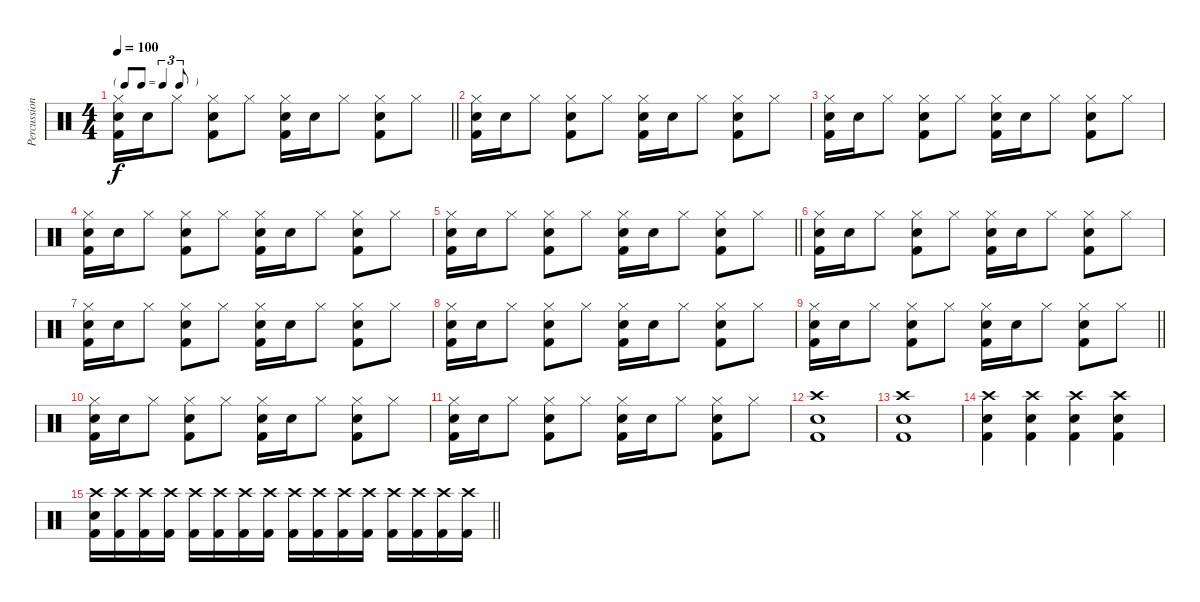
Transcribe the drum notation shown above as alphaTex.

\track ("Percussion" "Percussion") {instrument percussion}
\staff {score}
\articulation defaults
\ts (4 4)
\tf triplet8th
\tempo 100
\clef neutral
\barLineRight lightlight
\ks c
("Snare (hit) 2" "Hi-Hat (closed)" "Kick (hit) 2").16{dy f} "Snare (hit) 2".16 "Hi-Hat (closed)".8 ("Snare (hit) 2" "Hi-Hat (closed)" "Kick (hit) 2").8 "Hi-Hat (closed)".8 ("Snare (hit) 2" "Hi-Hat (closed)" "Kick (hit) 2").16 "Snare (hit) 2".16 "Hi-Hat (closed)".8 ("Snare (hit) 2" "Hi-Hat (closed)" "Kick (hit) 2").8 "Hi-Hat (closed)".8 |
("Snare (hit) 2" "Hi-Hat (closed)" "Kick (hit) 2").16 "Snare (hit) 2".16 "Hi-Hat (closed)".8 ("Snare (hit) 2" "Hi-Hat (closed)" "Kick (hit) 2").8 "Hi-Hat (closed)".8 ("Snare (hit) 2" "Hi-Hat (closed)" "Kick (hit) 2").16 "Snare (hit) 2".16 "Hi-Hat (closed)".8 ("Snare (hit) 2" "Hi-Hat (closed)" "Kick (hit) 2").8 "Hi-Hat (closed)".8 |
("Snare (hit) 2" "Hi-Hat (closed)" "Kick (hit) 2").16 "Snare (hit) 2".16 "Hi-Hat (closed)".8 ("Snare (hit) 2" "Hi-Hat (closed)" "Kick (hit) 2").8 "Hi-Hat (closed)".8 ("Snare (hit) 2" "Hi-Hat (closed)" "Kick (hit) 2").16 "Snare (hit) 2".16 "Hi-Hat (closed)".8 ("Snare (hit) 2" "Hi-Hat (closed)" "Kick (hit) 2").8 "Hi-Hat (closed)".8 |
("Snare (hit) 2" "Hi-Hat (closed)" "Kick (hit) 2").16 "Snare (hit) 2".16 "Hi-Hat (closed)".8 ("Snare (hit) 2" "Hi-Hat (closed)" "Kick (hit) 2").8 "Hi-Hat (closed)".8 ("Snare (hit) 2" "Hi-Hat (closed)" "Kick (hit) 2").16 "Snare (hit) 2".16 "Hi-Hat (closed)".8 ("Snare (hit) 2" "Hi-Hat (closed)" "Kick (hit) 2").8 "Hi-Hat (closed)".8 |
\barLineRight lightlight
("Snare (hit) 2" "Hi-Hat (closed)" "Kick (hit) 2").16 "Snare (hit) 2".16 "Hi-Hat (closed)".8 ("Snare (hit) 2" "Hi-Hat (closed)" "Kick (hit) 2").8 "Hi-Hat (closed)".8 ("Snare (hit) 2" "Hi-Hat (closed)" "Kick (hit) 2").16 "Snare (hit) 2".16 "Hi-Hat (closed)".8 ("Snare (hit) 2" "Hi-Hat (closed)" "Kick (hit) 2").8 "Hi-Hat (closed)".8 |
("Snare (hit) 2" "Hi-Hat (closed)" "Kick (hit) 2").16 "Snare (hit) 2".16 "Hi-Hat (closed)".8 ("Snare (hit) 2" "Hi-Hat (closed)" "Kick (hit) 2").8 "Hi-Hat (closed)".8 ("Snare (hit) 2" "Hi-Hat (closed)" "Kick (hit) 2").16 "Snare (hit) 2".16 "Hi-Hat (closed)".8 ("Snare (hit) 2" "Hi-Hat (closed)" "Kick (hit) 2").8 "Hi-Hat (closed)".8 |
("Snare (hit) 2" "Hi-Hat (closed)" "Kick (hit) 2").16 "Snare (hit) 2".16 "Hi-Hat (closed)".8 ("Snare (hit) 2" "Hi-Hat (closed)" "Kick (hit) 2").8 "Hi-Hat (closed)".8 ("Snare (hit) 2" "Hi-Hat (closed)" "Kick (hit) 2").16 "Snare (hit) 2".16 "Hi-Hat (closed)".8 ("Snare (hit) 2" "Hi-Hat (closed)" "Kick (hit) 2").8 "Hi-Hat (closed)".8 |
("Snare (hit) 2" "Hi-Hat (closed)" "Kick (hit) 2").16 "Snare (hit) 2".16 "Hi-Hat (closed)".8 ("Snare (hit) 2" "Hi-Hat (closed)" "Kick (hit) 2").8 "Hi-Hat (closed)".8 ("Snare (hit) 2" "Hi-Hat (closed)" "Kick (hit) 2").16 "Snare (hit) 2".16 "Hi-Hat (closed)".8 ("Snare (hit) 2" "Hi-Hat (closed)" "Kick (hit) 2").8 "Hi-Hat (closed)".8 |
\barLineRight lightlight
("Snare (hit) 2" "Hi-Hat (closed)" "Kick (hit) 2").16 "Snare (hit) 2".16 "Hi-Hat (closed)".8 ("Snare (hit) 2" "Hi-Hat (closed)" "Kick (hit) 2").8 "Hi-Hat (closed)".8 ("Snare (hit) 2" "Hi-Hat (closed)" "Kick (hit) 2").16 "Snare (hit) 2".16 "Hi-Hat (closed)".8 ("Snare (hit) 2" "Hi-Hat (closed)" "Kick (hit) 2").8 "Hi-Hat (closed)".8 |
("Snare (hit) 2" "Hi-Hat (closed)" "Kick (hit) 2").16 "Snare (hit) 2".16 "Hi-Hat (closed)".8 ("Snare (hit) 2" "Hi-Hat (closed)" "Kick (hit) 2").8 "Hi-Hat (closed)".8 ("Snare (hit) 2" "Hi-Hat (closed)" "Kick (hit) 2").16 "Snare (hit) 2".16 "Hi-Hat (closed)".8 ("Snare (hit) 2" "Hi-Hat (closed)" "Kick (hit) 2").8 "Hi-Hat (closed)".8 |
("Snare (hit) 2" "Hi-Hat (closed)" "Kick (hit) 2").16 "Snare (hit) 2".16 "Hi-Hat (closed)".8 ("Snare (hit) 2" "Hi-Hat (closed)" "Kick (hit) 2").8 "Hi-Hat (closed)".8 ("Snare (hit) 2" "Hi-Hat (closed)" "Kick (hit) 2").16 "Snare (hit) 2".16 "Hi-Hat (closed)".8 ("Snare (hit) 2" "Hi-Hat (closed)" "Kick (hit) 2").8 "Hi-Hat (closed)".8 |
("Snare (hit) 2" "Crash high (hit)" "Kick (hit) 2").1 |
("Snare (hit) 2" "Crash high (hit)" "Kick (hit) 2").1 |
("Snare (hit) 2" "Crash high (hit)" "Kick (hit) 2").4 ("Snare (hit) 2" "Crash high (hit)" "Kick (hit) 2").4 ("Snare (hit) 2" "Crash high (hit)" "Kick (hit) 2").4 ("Snare (hit) 2" "Crash high (hit)" "Kick (hit) 2").4 |
\barLineRight lightlight
("Snare (hit) 2" "Crash high (hit)" "Kick (hit) 2").16 ("Crash high (hit)" "Kick (hit) 2").16 ("Crash high (hit)" "Kick (hit) 2").16 ("Crash high (hit)" "Kick (hit) 2").16 ("Crash high (hit)" "Kick (hit) 2").16 ("Crash high (hit)" "Kick (hit) 2").16 ("Crash high (hit)" "Kick (hit) 2").16 ("Crash high (hit)" "Kick (hit) 2").16 ("Crash high (hit)" "Kick (hit) 2").16 ("Crash high (hit)" "Kick (hit) 2").16 ("Crash high (hit)" "Kick (hit) 2").16 ("Crash high (hit)" "Kick (hit) 2").16 ("Crash high (hit)" "Kick (hit) 2").16 ("Crash high (hit)" "Kick (hit) 2").16 ("Crash high (hit)" "Kick (hit) 2").16 ("Crash high (hit)" "Kick (hit) 2").16
